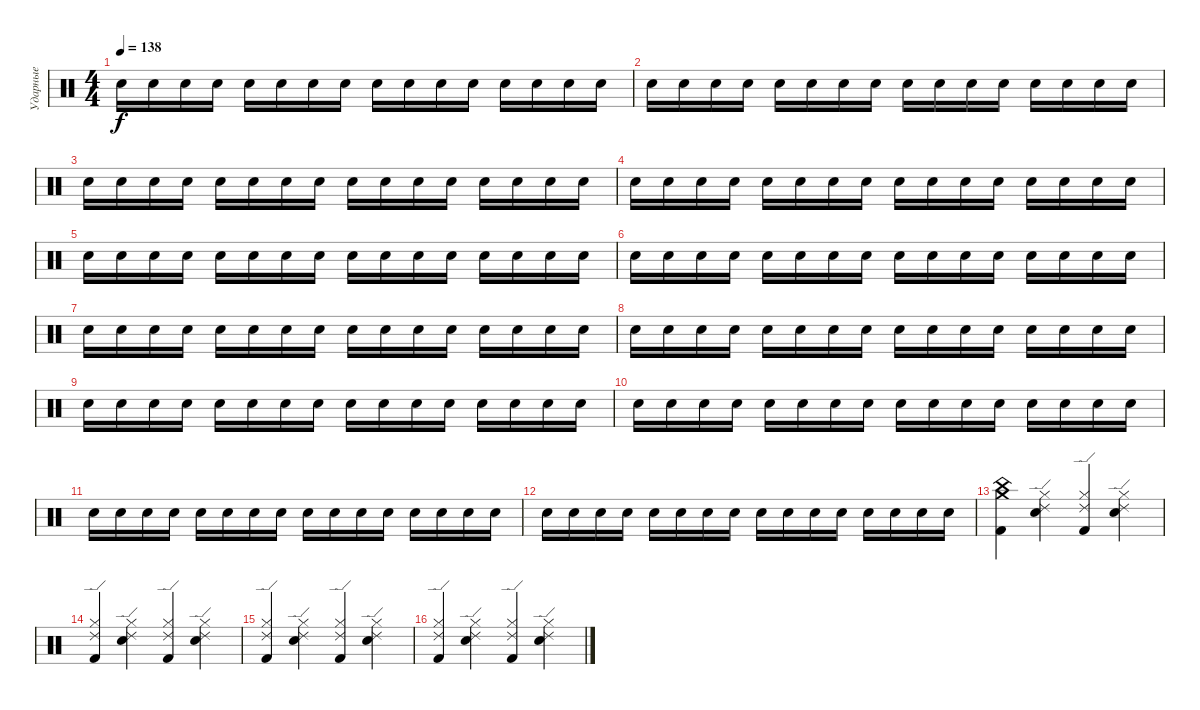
\track ("Ударные" "Ударные") {instrument percussion}
\staff {score}
\articulation defaults
\ts (4 4)
\tempo 138
\clef neutral
\ks c "Snare (hit) 2".16{dy f} "Snare (hit) 2".16 "Snare (hit) 2".16 "Snare (hit) 2".16 "Snare (hit) 2".16 "Snare (hit) 2".16 "Snare (hit) 2".16 "Snare (hit) 2".16 "Snare (hit) 2".16 "Snare (hit) 2".16 "Snare (hit) 2".16 "Snare (hit) 2".16 "Snare (hit) 2".16 "Snare (hit) 2".16 "Snare (hit) 2".16 "Snare (hit) 2".16
|
"Snare (hit) 2".16 "Snare (hit) 2".16 "Snare (hit) 2".16 "Snare (hit) 2".16 "Snare (hit) 2".16 "Snare (hit) 2".16 "Snare (hit) 2".16 "Snare (hit) 2".16 "Snare (hit) 2".16 "Snare (hit) 2".16 "Snare (hit) 2".16 "Snare (hit) 2".16 "Snare (hit) 2".16 "Snare (hit) 2".16 "Snare (hit) 2".16 "Snare (hit) 2".16 |
"Snare (hit) 2".16 "Snare (hit) 2".16 "Snare (hit) 2".16 "Snare (hit) 2".16 "Snare (hit) 2".16 "Snare (hit) 2".16 "Snare (hit) 2".16 "Snare (hit) 2".16 "Snare (hit) 2".16 "Snare (hit) 2".16 "Snare (hit) 2".16 "Snare (hit) 2".16 "Snare (hit) 2".16 "Snare (hit) 2".16 "Snare (hit) 2".16 "Snare (hit) 2".16 |
"Snare (hit) 2".16 "Snare (hit) 2".16 "Snare (hit) 2".16 "Snare (hit) 2".16 "Snare (hit) 2".16 "Snare (hit) 2".16 "Snare (hit) 2".16 "Snare (hit) 2".16 "Snare (hit) 2".16 "Snare (hit) 2".16 "Snare (hit) 2".16 "Snare (hit) 2".16 "Snare (hit) 2".16 "Snare (hit) 2".16 "Snare (hit) 2".16 "Snare (hit) 2".16 |
"Snare (hit) 2".16 "Snare (hit) 2".16 "Snare (hit) 2".16 "Snare (hit) 2".16 "Snare (hit) 2".16 "Snare (hit) 2".16 "Snare (hit) 2".16 "Snare (hit) 2".16 "Snare (hit) 2".16 "Snare (hit) 2".16 "Snare (hit) 2".16 "Snare (hit) 2".16 "Snare (hit) 2".16 "Snare (hit) 2".16 "Snare (hit) 2".16 "Snare (hit) 2".16 |
"Snare (hit) 2".16 "Snare (hit) 2".16 "Snare (hit) 2".16 "Snare (hit) 2".16 "Snare (hit) 2".16 "Snare (hit) 2".16 "Snare (hit) 2".16 "Snare (hit) 2".16 "Snare (hit) 2".16 "Snare (hit) 2".16 "Snare (hit) 2".16 "Snare (hit) 2".16 "Snare (hit) 2".16 "Snare (hit) 2".16 "Snare (hit) 2".16 "Snare (hit) 2".16 |
"Snare (hit) 2".16 "Snare (hit) 2".16 "Snare (hit) 2".16 "Snare (hit) 2".16 "Snare (hit) 2".16 "Snare (hit) 2".16 "Snare (hit) 2".16 "Snare (hit) 2".16 "Snare (hit) 2".16 "Snare (hit) 2".16 "Snare (hit) 2".16 "Snare (hit) 2".16 "Snare (hit) 2".16 "Snare (hit) 2".16 "Snare (hit) 2".16 "Snare (hit) 2".16 |
"Snare (hit) 2".16 "Snare (hit) 2".16 "Snare (hit) 2".16 "Snare (hit) 2".16 "Snare (hit) 2".16 "Snare (hit) 2".16 "Snare (hit) 2".16 "Snare (hit) 2".16 "Snare (hit) 2".16 "Snare (hit) 2".16 "Snare (hit) 2".16 "Snare (hit) 2".16 "Snare (hit) 2".16 "Snare (hit) 2".16 "Snare (hit) 2".16 "Snare (hit) 2".16 |
"Snare (hit) 2".16 "Snare (hit) 2".16 "Snare (hit) 2".16 "Snare (hit) 2".16 "Snare (hit) 2".16 "Snare (hit) 2".16 "Snare (hit) 2".16 "Snare (hit) 2".16 "Snare (hit) 2".16 "Snare (hit) 2".16 "Snare (hit) 2".16 "Snare (hit) 2".16 "Snare (hit) 2".16 "Snare (hit) 2".16 "Snare (hit) 2".16 "Snare (hit) 2".16 |
"Snare (hit) 2".16 "Snare (hit) 2".16 "Snare (hit) 2".16 "Snare (hit) 2".16 "Snare (hit) 2".16 "Snare (hit) 2".16 "Snare (hit) 2".16 "Snare (hit) 2".16 "Snare (hit) 2".16 "Snare (hit) 2".16 "Snare (hit) 2".16 "Snare (hit) 2".16 "Snare (hit) 2".16 "Snare (hit) 2".16 "Snare (hit) 2".16 "Snare (hit) 2".16 |
"Snare (hit) 2".16 "Snare (hit) 2".16 "Snare (hit) 2".16 "Snare (hit) 2".16 "Snare (hit) 2".16 "Snare (hit) 2".16 "Snare (hit) 2".16 "Snare (hit) 2".16 "Snare (hit) 2".16 "Snare (hit) 2".16 "Snare (hit) 2".16 "Snare (hit) 2".16 "Snare (hit) 2".16 "Snare (hit) 2".16 "Snare (hit) 2".16 "Snare (hit) 2".16 |
"Snare (hit) 2".16 "Snare (hit) 2".16 "Snare (hit) 2".16 "Snare (hit) 2".16 "Snare (hit) 2".16 "Snare (hit) 2".16 "Snare (hit) 2".16 "Snare (hit) 2".16 "Snare (hit) 2".16 "Snare (hit) 2".16 "Snare (hit) 2".16 "Snare (hit) 2".16 "Snare (hit) 2".16 "Snare (hit) 2".16 "Snare (hit) 2".16 "Snare (hit) 2".16 |
("Kick (hit) 2" "China (hit)" "Crash medium (hit)").4 ("Snare (hit) 2" "Hi-Hat (closed)" "Ride (edge) 2").4 ("Kick (hit) 2" "Hi-Hat (closed)" "Ride (edge) 2").4 ("Snare (hit) 2" "Hi-Hat (closed)" "Ride (edge) 2").4 |
("Kick (hit) 2" "Hi-Hat (closed)" "Ride (edge) 2").4 ("Snare (hit) 2" "Hi-Hat (closed)" "Ride (edge) 2").4 ("Kick (hit) 2" "Hi-Hat (closed)" "Ride (edge) 2").4 ("Snare (hit) 2" "Hi-Hat (closed)" "Ride (edge) 2").4 |
("Kick (hit) 2" "Hi-Hat (closed)" "Ride (edge) 2").4 ("Snare (hit) 2" "Hi-Hat (closed)" "Ride (edge) 2").4 ("Kick (hit) 2" "Hi-Hat (closed)" "Ride (edge) 2").4 ("Snare (hit) 2" "Hi-Hat (closed)" "Ride (edge) 2").4 |
("Kick (hit) 2" "Hi-Hat (closed)" "Ride (edge) 2").4 ("Snare (hit) 2" "Hi-Hat (closed)" "Ride (edge) 2").4 ("Kick (hit) 2" "Hi-Hat (closed)" "Ride (edge) 2").4 ("Snare (hit) 2" "Hi-Hat (closed)" "Ride (edge) 2").4
